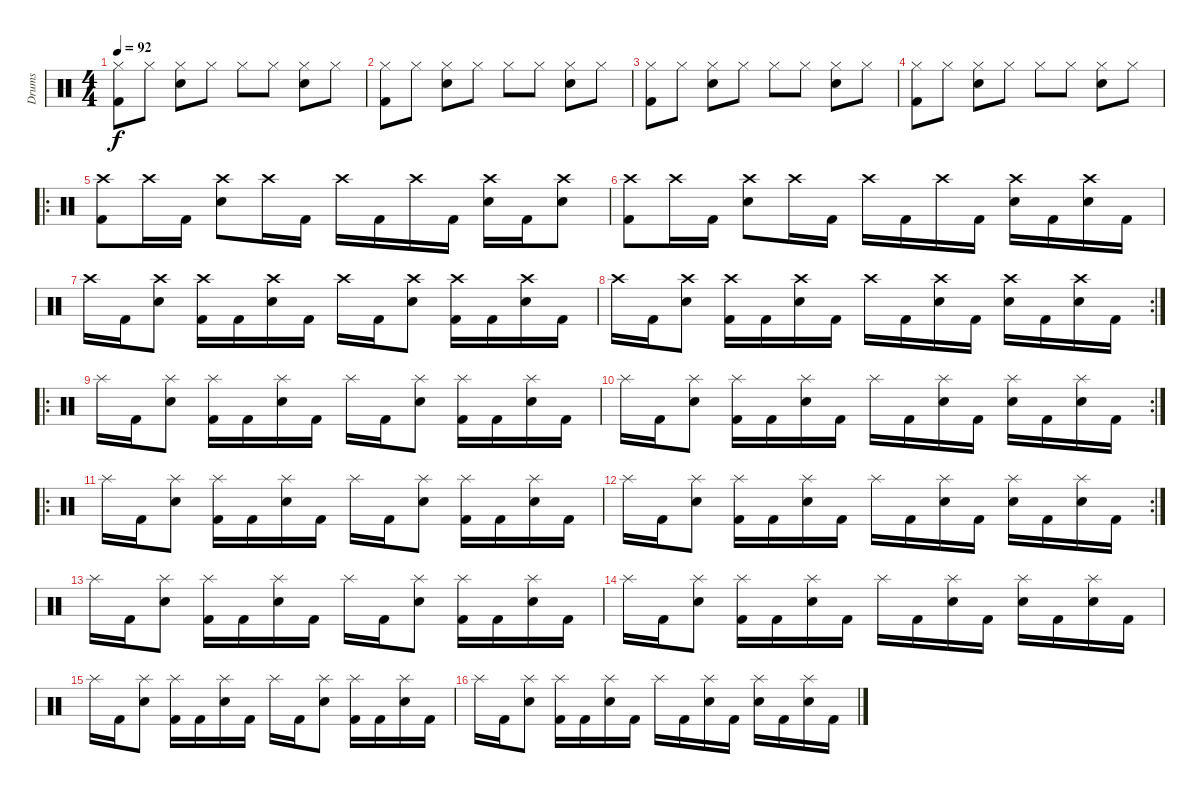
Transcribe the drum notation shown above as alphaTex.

\track ("Drums" "Drums") {instrument percussion}
\staff {score}
\articulation defaults
\ts (4 4)
\tempo 92
\clef neutral
\ks c
("Hi-Hat (closed)" "Kick (hit) 2").8{dy f} "Hi-Hat (closed)".8 ("Hi-Hat (closed)" "Electric Snare (hit)").8 "Hi-Hat (closed)".8 "Hi-Hat (closed)".8 "Hi-Hat (closed)".8 ("Hi-Hat (closed)" "Electric Snare (hit)").8 "Hi-Hat (closed)".8 |
("Hi-Hat (closed)" "Kick (hit) 2").8 "Hi-Hat (closed)".8 ("Hi-Hat (closed)" "Electric Snare (hit)").8 "Hi-Hat (closed)".8 "Hi-Hat (closed)".8 "Hi-Hat (closed)".8 ("Hi-Hat (closed)" "Electric Snare (hit)").8 "Hi-Hat (closed)".8 |
("Hi-Hat (closed)" "Kick (hit) 2").8 "Hi-Hat (closed)".8 ("Hi-Hat (closed)" "Electric Snare (hit)").8 "Hi-Hat (closed)".8 "Hi-Hat (closed)".8 "Hi-Hat (closed)".8 ("Hi-Hat (closed)" "Electric Snare (hit)").8 "Hi-Hat (closed)".8 |
("Hi-Hat (closed)" "Kick (hit) 2").8 "Hi-Hat (closed)".8 ("Hi-Hat (closed)" "Electric Snare (hit)").8 "Hi-Hat (closed)".8 "Hi-Hat (closed)".8 "Hi-Hat (closed)".8 ("Hi-Hat (closed)" "Electric Snare (hit)").8 "Hi-Hat (closed)".8 |
\ro
("Crash high (hit)" "Kick (hit) 2").8 "Crash high (hit)".16 "Kick (hit) 2".16 ("Crash high (hit)" "Electric Snare (hit)").8 "Crash high (hit)".16 "Kick (hit) 2".16 "Crash high (hit)".16 "Kick (hit) 2".16 "Crash high (hit)".16 "Kick (hit) 2".16 ("Crash high (hit)" "Electric Snare (hit)").16 "Kick (hit) 2".16 ("Crash high (hit)" "Electric Snare (hit)").8 |
("Crash high (hit)" "Kick (hit) 2").8 "Crash high (hit)".16 "Kick (hit) 2".16 ("Crash high (hit)" "Electric Snare (hit)").8 "Crash high (hit)".16 "Kick (hit) 2".16 "Crash high (hit)".16 "Kick (hit) 2".16 "Crash high (hit)".16 "Kick (hit) 2".16 ("Crash high (hit)" "Electric Snare (hit)").16 "Kick (hit) 2".16 ("Crash high (hit)" "Electric Snare (hit)").16 "Kick (hit) 2".16 |
"Crash high (hit)".16 "Kick (hit) 2".16 ("Crash high (hit)" "Electric Snare (hit)").8 ("Crash high (hit)" "Kick (hit) 2").16 "Kick (hit) 2".16 ("Crash high (hit)" "Electric Snare (hit)").16 "Kick (hit) 2".16 "Crash high (hit)".16 "Kick (hit) 2".16 ("Crash high (hit)" "Electric Snare (hit)").8 ("Crash high (hit)" "Kick (hit) 2").16 "Kick (hit) 2".16 ("Crash high (hit)" "Electric Snare (hit)").16 "Kick (hit) 2".16 |
\rc 2 "Crash high (hit)".16 "Kick (hit) 2".16
("Crash high (hit)" "Electric Snare (hit)").8 ("Crash high (hit)" "Kick (hit) 2").16 "Kick (hit) 2".16 ("Crash high (hit)" "Electric Snare (hit)").16 "Kick (hit) 2".16 "Crash high (hit)".16 "Kick (hit) 2".16 ("Crash high (hit)" "Electric Snare (hit)").16 "Kick (hit) 2".16 ("Crash high (hit)" "Electric Snare (hit)").16 "Kick (hit) 2".16 ("Crash high (hit)" "Electric Snare (hit)").16 "Kick (hit) 2".16 |
\ro "Splash (hit)".16 "Kick (hit) 2".16
("Splash (hit)" "Electric Snare (hit)").8 ("Splash (hit)" "Kick (hit) 2").16 "Kick (hit) 2".16 ("Splash (hit)" "Electric Snare (hit)").16 "Kick (hit) 2".16 "Splash (hit)".16 "Kick (hit) 2".16 ("Splash (hit)" "Electric Snare (hit)").8 ("Splash (hit)" "Kick (hit) 2").16 "Kick (hit) 2".16 ("Splash (hit)" "Electric Snare (hit)").16 "Kick (hit) 2".16 |
\rc 2 "Splash (hit)".16 "Kick (hit) 2".16
("Splash (hit)" "Electric Snare (hit)").8 ("Splash (hit)" "Kick (hit) 2").16 "Kick (hit) 2".16 ("Splash (hit)" "Electric Snare (hit)").16 "Kick (hit) 2".16 "Splash (hit)".16 "Kick (hit) 2".16 ("Splash (hit)" "Electric Snare (hit)").16 "Kick (hit) 2".16 ("Splash (hit)" "Electric Snare (hit)").16 "Kick (hit) 2".16 ("Splash (hit)" "Electric Snare (hit)").16 "Kick (hit) 2".16 |
\ro "Splash (hit)".16 "Kick (hit) 2".16
("Splash (hit)" "Electric Snare (hit)").8 ("Splash (hit)" "Kick (hit) 2").16 "Kick (hit) 2".16 ("Splash (hit)" "Electric Snare (hit)").16 "Kick (hit) 2".16 "Splash (hit)".16 "Kick (hit) 2".16 ("Splash (hit)" "Electric Snare (hit)").8 ("Splash (hit)" "Kick (hit) 2").16 "Kick (hit) 2".16 ("Splash (hit)" "Electric Snare (hit)").16 "Kick (hit) 2".16 |
\rc 2 "Splash (hit)".16 "Kick (hit) 2".16
("Splash (hit)" "Electric Snare (hit)").8 ("Splash (hit)" "Kick (hit) 2").16 "Kick (hit) 2".16 ("Splash (hit)" "Electric Snare (hit)").16 "Kick (hit) 2".16 "Splash (hit)".16 "Kick (hit) 2".16 ("Splash (hit)" "Electric Snare (hit)").16 "Kick (hit) 2".16 ("Splash (hit)" "Electric Snare (hit)").16 "Kick (hit) 2".16 ("Splash (hit)" "Electric Snare (hit)").16 "Kick (hit) 2".16 |
"Splash (hit)".16 "Kick (hit) 2".16 ("Splash (hit)" "Electric Snare (hit)").8 ("Splash (hit)" "Kick (hit) 2").16 "Kick (hit) 2".16 ("Splash (hit)" "Electric Snare (hit)").16 "Kick (hit) 2".16 "Splash (hit)".16 "Kick (hit) 2".16 ("Splash (hit)" "Electric Snare (hit)").8 ("Splash (hit)" "Kick (hit) 2").16 "Kick (hit) 2".16 ("Splash (hit)" "Electric Snare (hit)").16 "Kick (hit) 2".16 |
"Splash (hit)".16 "Kick (hit) 2".16 ("Splash (hit)" "Electric Snare (hit)").8 ("Splash (hit)" "Kick (hit) 2").16 "Kick (hit) 2".16 ("Splash (hit)" "Electric Snare (hit)").16 "Kick (hit) 2".16 "Splash (hit)".16 "Kick (hit) 2".16 ("Splash (hit)" "Electric Snare (hit)").16 "Kick (hit) 2".16 ("Splash (hit)" "Electric Snare (hit)").16 "Kick (hit) 2".16 ("Splash (hit)" "Electric Snare (hit)").16 "Kick (hit) 2".16 |
"Splash (hit)".16 "Kick (hit) 2".16 ("Splash (hit)" "Electric Snare (hit)").8 ("Splash (hit)" "Kick (hit) 2").16 "Kick (hit) 2".16 ("Splash (hit)" "Electric Snare (hit)").16 "Kick (hit) 2".16 "Splash (hit)".16 "Kick (hit) 2".16 ("Splash (hit)" "Electric Snare (hit)").8 ("Splash (hit)" "Kick (hit) 2").16 "Kick (hit) 2".16 ("Splash (hit)" "Electric Snare (hit)").16 "Kick (hit) 2".16 |
"Splash (hit)".16 "Kick (hit) 2".16 ("Splash (hit)" "Electric Snare (hit)").8 ("Splash (hit)" "Kick (hit) 2").16 "Kick (hit) 2".16 ("Splash (hit)" "Electric Snare (hit)").16 "Kick (hit) 2".16 "Splash (hit)".16 "Kick (hit) 2".16 ("Splash (hit)" "Electric Snare (hit)").16 "Kick (hit) 2".16 ("Splash (hit)" "Electric Snare (hit)").16 "Kick (hit) 2".16 ("Splash (hit)" "Electric Snare (hit)").16 "Kick (hit) 2".16
